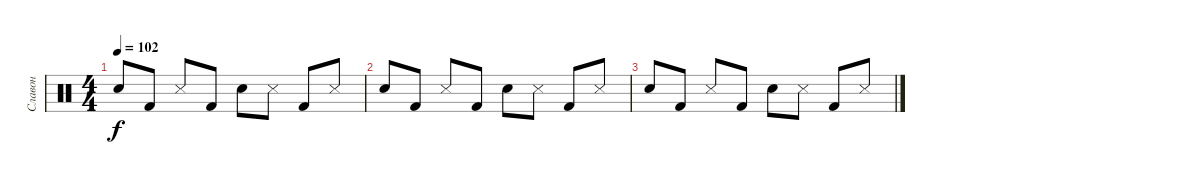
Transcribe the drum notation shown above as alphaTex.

\track ("Славон" "Славон") {instrument percussion}
\staff {score}
\articulation defaults
\ts (4 4)
\tempo 102
\clef neutral
\ks c "Snare (hit) 2".8{dy f} "Kick (hit) 2".8 "Snare (side stick) 3".8 "Kick (hit) 2".8 "Snare (hit) 2".8 "Snare (side stick) 3".8 "Kick (hit) 2".8 "Snare (side stick) 3".8
|
"Snare (hit) 2".8 "Kick (hit) 2".8 "Snare (side stick) 3".8 "Kick (hit) 2".8 "Snare (hit) 2".8 "Snare (side stick) 3".8 "Kick (hit) 2".8 "Snare (side stick) 3".8 |
"Snare (hit) 2".8 "Kick (hit) 2".8 "Snare (side stick) 3".8 "Kick (hit) 2".8 "Snare (hit) 2".8 "Snare (side stick) 3".8 "Kick (hit) 2".8 "Snare (side stick) 3".8
